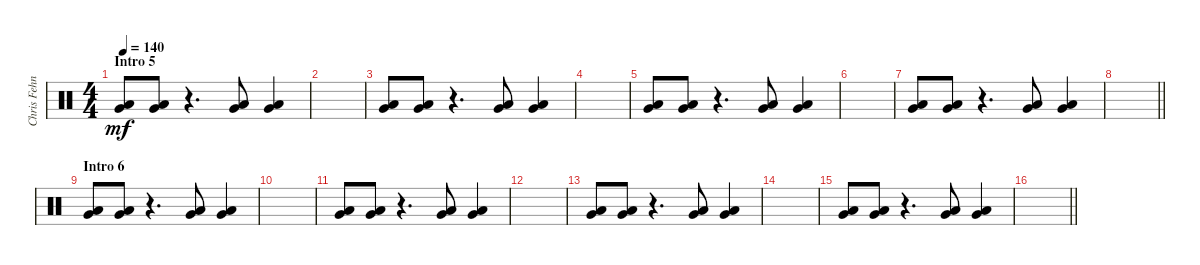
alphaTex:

\track ("Chris Fehn" "Chris Fehn") {instrument percussion}
\staff {score}
\articulation defaults
\ts (4 4)
\section ("" "Intro 5")
\tempo 140
\clef neutral
\ks c
("Very Low Tom (hit)" "Low Floor Tom (hit)").8{dy mf} ("Very Low Tom (hit)" "Low Floor Tom (hit)").8 r.4{d} ("Very Low Tom (hit)" "Low Floor Tom (hit)").8 ("Very Low Tom (hit)" "Low Floor Tom (hit)").4 |
|
("Very Low Tom (hit)" "Low Floor Tom (hit)").8 ("Very Low Tom (hit)" "Low Floor Tom (hit)").8 r.4{d} ("Very Low Tom (hit)" "Low Floor Tom (hit)").8 ("Very Low Tom (hit)" "Low Floor Tom (hit)").4 |
|
("Very Low Tom (hit)" "Low Floor Tom (hit)").8 ("Very Low Tom (hit)" "Low Floor Tom (hit)").8 r.4{d} ("Very Low Tom (hit)" "Low Floor Tom (hit)").8 ("Very Low Tom (hit)" "Low Floor Tom (hit)").4 |
|
("Very Low Tom (hit)" "Low Floor Tom (hit)").8 ("Very Low Tom (hit)" "Low Floor Tom (hit)").8 r.4{d} ("Very Low Tom (hit)" "Low Floor Tom (hit)").8 ("Very Low Tom (hit)" "Low Floor Tom (hit)").4 |
\barLineRight lightlight
|
\section ("" "Intro 6")
("Very Low Tom (hit)" "Low Floor Tom (hit)").8 ("Very Low Tom (hit)" "Low Floor Tom (hit)").8 r.4{d} ("Very Low Tom (hit)" "Low Floor Tom (hit)").8 ("Very Low Tom (hit)" "Low Floor Tom (hit)").4 |
|
("Very Low Tom (hit)" "Low Floor Tom (hit)").8 ("Very Low Tom (hit)" "Low Floor Tom (hit)").8 r.4{d} ("Very Low Tom (hit)" "Low Floor Tom (hit)").8 ("Very Low Tom (hit)" "Low Floor Tom (hit)").4 |
|
("Very Low Tom (hit)" "Low Floor Tom (hit)").8 ("Very Low Tom (hit)" "Low Floor Tom (hit)").8 r.4{d} ("Very Low Tom (hit)" "Low Floor Tom (hit)").8 ("Very Low Tom (hit)" "Low Floor Tom (hit)").4 |
|
("Very Low Tom (hit)" "Low Floor Tom (hit)").8 ("Very Low Tom (hit)" "Low Floor Tom (hit)").8 r.4{d} ("Very Low Tom (hit)" "Low Floor Tom (hit)").8 ("Very Low Tom (hit)" "Low Floor Tom (hit)").4 |
\barLineRight lightlight
